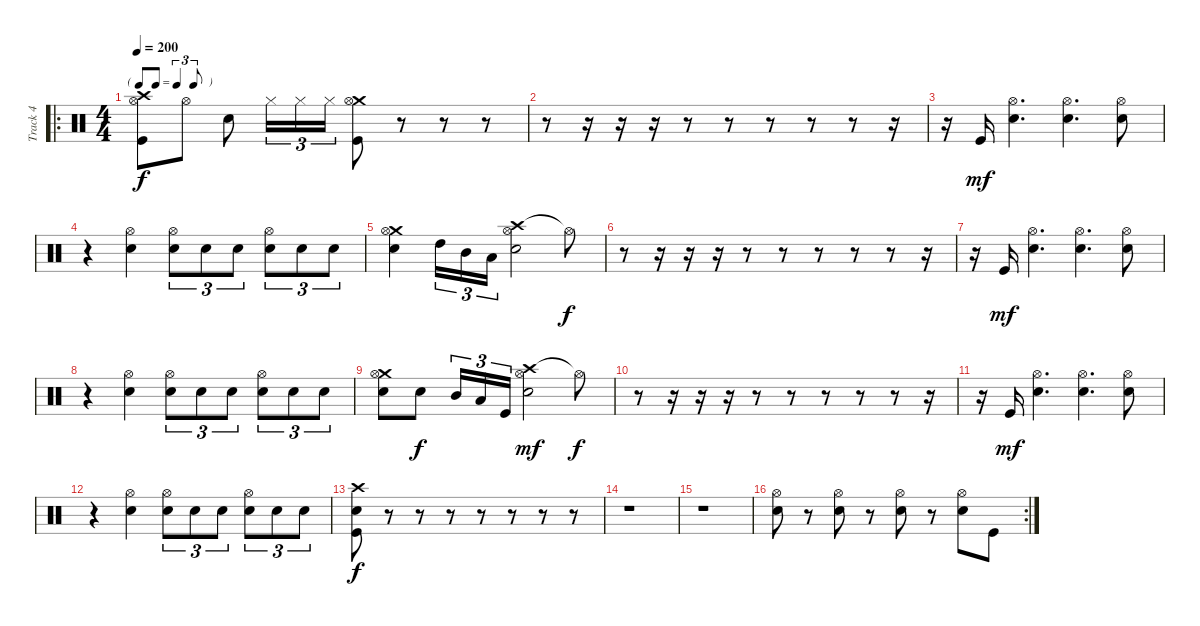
\track ("Track 4" "Track 4") {instrument percussion}
\staff {score}
\articulation defaults
\ro
\ts (4 4)
\tf triplet8th
\tempo 200
\clef neutral
\ks c
("Crash high (hit)" "Hi-Hat (open)" "Kick (hit)").8{dy f} "Hi-Hat (open)".8 "Electric Snare (hit)".8 "Hi-Hat (closed)".16{tu (3 2)} "Hi-Hat (closed)".16{tu (3 2)} "Hi-Hat (closed)".16{tu (3 2)} ("Crash medium (hit)" "Hi-Hat (open)" "Kick (hit)").8 r.8 r.8 r.8 |
r.8 r.16 r.16 r.16 r.8 r.8 r.8 r.8 r.8 r.16 |
r.16 "Kick (hit)".16{dy mf} ("Hi-Hat (open)" "Electric Snare (hit)").4{d} ("Hi-Hat (open)" "Electric Snare (hit)").4{d} ("Hi-Hat (open)" "Electric Snare (hit)").8 |
r.4 ("Hi-Hat (open)" "Electric Snare (hit)").4 ("Hi-Hat (open)" "Electric Snare (hit)").8{tu (3 2)} "Electric Snare (hit)".8{tu (3 2)} "Electric Snare (hit)".8{tu (3 2)} ("Hi-Hat (open)" "Electric Snare (hit)").8{tu (3 2)} "Electric Snare (hit)".8{tu (3 2)} "Electric Snare (hit)".8{tu (3 2)} |
("Crash medium (hit)" "Hi-Hat (open)" "Electric Snare (hit)").4 "High Tom (hit)".16{tu (3 2)} "Mid Tom (hit)".16{tu (3 2)} "Low Tom (hit)".16{tu (3 2)} ("Crash high (hit)" "Hi-Hat (open)" "Electric Snare (hit)").2 "Hi-Hat (open)"{t}.8{dy f} |
r.8 r.16 r.16 r.16 r.8 r.8 r.8 r.8 r.8 r.16 |
r.16 "Kick (hit)".16{dy mf} ("Hi-Hat (open)" "Electric Snare (hit)").4{d} ("Hi-Hat (open)" "Electric Snare (hit)").4{d} ("Hi-Hat (open)" "Electric Snare (hit)").8 |
r.4 ("Hi-Hat (open)" "Electric Snare (hit)").4 ("Hi-Hat (open)" "Electric Snare (hit)").8{tu (3 2)} "Electric Snare (hit)".8{tu (3 2)} "Electric Snare (hit)".8{tu (3 2)} ("Hi-Hat (open)" "Electric Snare (hit)").8{tu (3 2)} "Electric Snare (hit)".8{tu (3 2)} "Electric Snare (hit)".8{tu (3 2)} |
("Crash medium (hit)" "Hi-Hat (open)" "Electric Snare (hit)").8 "Electric Snare (hit)".8{dy f} "Mid Tom (hit)".16{tu (3 2)} "Low Tom (hit)".16{tu (3 2)} "Kick (hit)".16{tu (3 2)} ("Crash high (hit)" "Hi-Hat (open)" "Electric Snare (hit)").2{dy mf} "Hi-Hat (open)"{t}.8{dy f} |
r.8 r.16 r.16 r.16 r.8 r.8 r.8 r.8 r.8 r.16 |
r.16 "Kick (hit)".16{dy mf} ("Hi-Hat (open)" "Electric Snare (hit)").4{d} ("Hi-Hat (open)" "Electric Snare (hit)").4{d} ("Hi-Hat (open)" "Electric Snare (hit)").8 |
r.4 ("Hi-Hat (open)" "Electric Snare (hit)").4 ("Hi-Hat (open)" "Electric Snare (hit)").8{tu (3 2)} "Electric Snare (hit)".8{tu (3 2)} "Electric Snare (hit)".8{tu (3 2)} ("Hi-Hat (open)" "Electric Snare (hit)").8{tu (3 2)} "Electric Snare (hit)".8{tu (3 2)} "Electric Snare (hit)".8{tu (3 2)} |
("Crash high (hit)" "Electric Snare (hit)" "Kick (hit)").8{dy f} r.8 r.8 r.8 r.8 r.8 r.8 r.8 |
r.1 |
r.1 |
\rc 2
("Hi-Hat (open)" "Electric Snare (hit)").8 r.8 ("Hi-Hat (open)" "Electric Snare (hit)").8 r.8 ("Hi-Hat (open)" "Electric Snare (hit)").8 r.8 ("Hi-Hat (open)" "Electric Snare (hit)").8 "Kick (hit)".8
